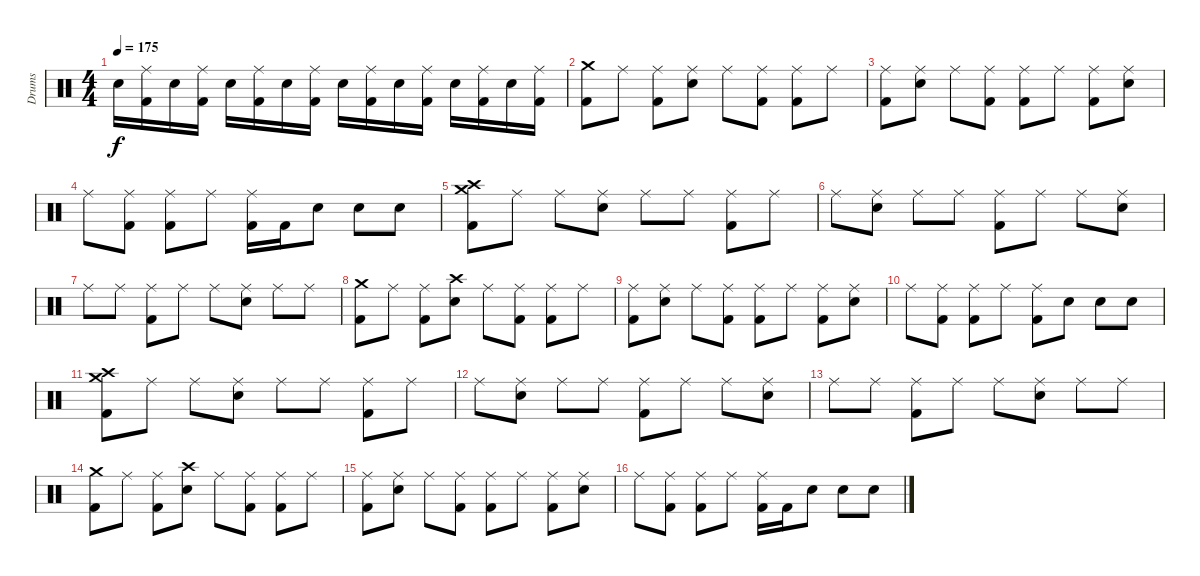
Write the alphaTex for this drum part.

\track ("Drums" "Drums") {instrument percussion}
\staff {score}
\articulation defaults
\ts (4 4)
\tempo 175
\clef neutral
\ks c "Electric Snare (hit)".16{dy f}
("Ride (middle)" "Kick (hit) 2").16 "Electric Snare (hit)".16 ("Ride (middle)" "Kick (hit) 2").16 "Electric Snare (hit)".16 ("Ride (middle)" "Kick (hit) 2").16 "Electric Snare (hit)".16 ("Ride (middle)" "Kick (hit) 2").16 "Electric Snare (hit)".16 ("Ride (middle)" "Kick (hit) 2").16 "Electric Snare (hit)".16 ("Ride (middle)" "Kick (hit) 2").16 "Electric Snare (hit)".16 ("Ride (middle)" "Kick (hit) 2").16 "Electric Snare (hit)".16 ("Ride (middle)" "Kick (hit) 2").16 |
("Crash medium (hit)" "Kick (hit) 2").8 "Ride (middle)".8 ("Ride (middle)" "Kick (hit) 2").8 ("Ride (middle)" "Electric Snare (hit)").8 "Ride (middle)".8 ("Ride (middle)" "Kick (hit) 2").8 ("Ride (middle)" "Kick (hit) 2").8 "Ride (middle)".8 |
("Ride (middle)" "Kick (hit) 2").8 ("Ride (middle)" "Electric Snare (hit)").8 "Ride (middle)".8 ("Ride (middle)" "Kick (hit) 2").8 ("Ride (middle)" "Kick (hit) 2").8 "Ride (middle)".8 ("Ride (middle)" "Kick (hit) 2").8 ("Ride (middle)" "Electric Snare (hit)").8 |
"Ride (middle)".8 ("Ride (middle)" "Kick (hit) 2").8 ("Ride (middle)" "Kick (hit) 2").8 "Ride (middle)".8 ("Ride (middle)" "Kick (hit) 2").16 "Kick (hit) 2".16 "Electric Snare (hit)".8 "Electric Snare (hit)".8 "Electric Snare (hit)".8 |
("Crash medium (hit)" "Crash high (hit)" "Kick (hit) 2").8 "Ride (middle)".8 "Ride (middle)".8 ("Ride (middle)" "Electric Snare (hit)").8 "Ride (middle)".8 "Ride (middle)".8 ("Ride (middle)" "Kick (hit) 2").8 "Ride (middle)".8 |
"Ride (middle)".8 ("Ride (middle)" "Electric Snare (hit)").8 "Ride (middle)".8 "Ride (middle)".8 ("Ride (middle)" "Kick (hit) 2").8 "Ride (middle)".8 "Ride (middle)".8 ("Ride (middle)" "Electric Snare (hit)").8 |
"Ride (middle)".8 "Ride (middle)".8 ("Ride (middle)" "Kick (hit) 2").8 "Ride (middle)".8 "Ride (middle)".8 ("Ride (middle)" "Electric Snare (hit)").8 "Ride (middle)".8 "Ride (middle)".8 |
("Crash medium (hit)" "Kick (hit) 2").8 "Ride (middle)".8 ("Ride (middle)" "Kick (hit) 2").8 ("Crash high (hit)" "Electric Snare (hit)").8 "Ride (middle)".8 ("Ride (middle)" "Kick (hit) 2").8 ("Ride (middle)" "Kick (hit) 2").8 "Ride (middle)".8 |
("Ride (middle)" "Kick (hit) 2").8 ("Ride (middle)" "Electric Snare (hit)").8 "Ride (middle)".8 ("Ride (middle)" "Kick (hit) 2").8 ("Ride (middle)" "Kick (hit) 2").8 "Ride (middle)".8 ("Ride (middle)" "Kick (hit) 2").8 ("Ride (middle)" "Electric Snare (hit)").8 |
"Ride (middle)".8 ("Ride (middle)" "Kick (hit) 2").8 ("Ride (middle)" "Kick (hit) 2").8 "Ride (middle)".8 ("Ride (middle)" "Kick (hit) 2").8 "Electric Snare (hit)".8 "Electric Snare (hit)".8 "Electric Snare (hit)".8 |
("Crash medium (hit)" "Crash high (hit)" "Kick (hit) 2").8 "Ride (middle)".8 "Ride (middle)".8 ("Ride (middle)" "Electric Snare (hit)").8 "Ride (middle)".8 "Ride (middle)".8 ("Ride (middle)" "Kick (hit) 2").8 "Ride (middle)".8 |
"Ride (middle)".8 ("Ride (middle)" "Electric Snare (hit)").8 "Ride (middle)".8 "Ride (middle)".8 ("Ride (middle)" "Kick (hit) 2").8 "Ride (middle)".8 "Ride (middle)".8 ("Ride (middle)" "Electric Snare (hit)").8 |
"Ride (middle)".8 "Ride (middle)".8 ("Ride (middle)" "Kick (hit) 2").8 "Ride (middle)".8 "Ride (middle)".8 ("Ride (middle)" "Electric Snare (hit)").8 "Ride (middle)".8 "Ride (middle)".8 |
("Crash medium (hit)" "Kick (hit) 2").8 "Ride (middle)".8 ("Ride (middle)" "Kick (hit) 2").8 ("Crash high (hit)" "Electric Snare (hit)").8 "Ride (middle)".8 ("Ride (middle)" "Kick (hit) 2").8 ("Ride (middle)" "Kick (hit) 2").8 "Ride (middle)".8 |
("Ride (middle)" "Kick (hit) 2").8 ("Ride (middle)" "Electric Snare (hit)").8 "Ride (middle)".8 ("Ride (middle)" "Kick (hit) 2").8 ("Ride (middle)" "Kick (hit) 2").8 "Ride (middle)".8 ("Ride (middle)" "Kick (hit) 2").8 ("Ride (middle)" "Electric Snare (hit)").8 |
"Ride (middle)".8 ("Ride (middle)" "Kick (hit) 2").8 ("Ride (middle)" "Kick (hit) 2").8 "Ride (middle)".8 ("Ride (middle)" "Kick (hit) 2").16 "Kick (hit) 2".16 "Electric Snare (hit)".8 "Electric Snare (hit)".8 "Electric Snare (hit)".8
